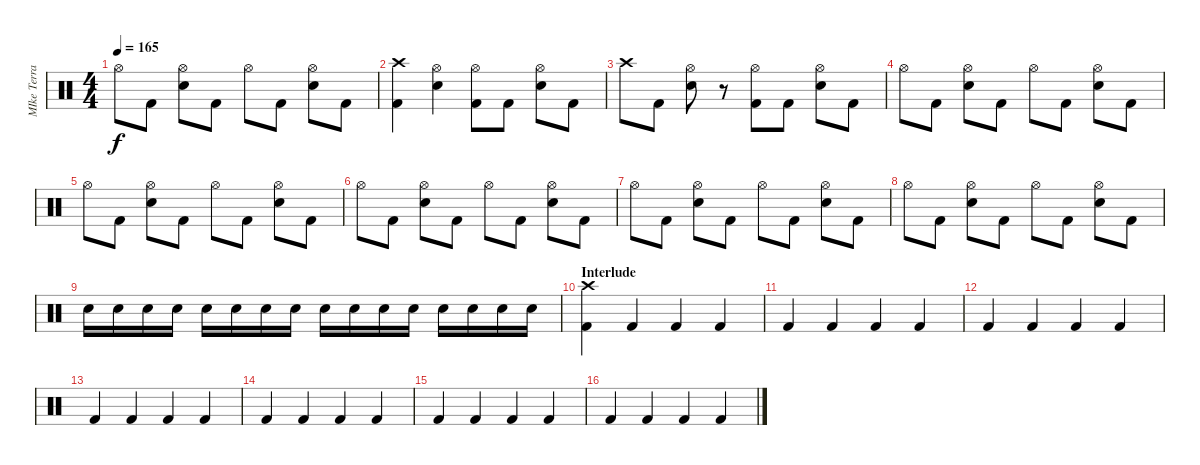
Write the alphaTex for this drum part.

\track ("MIke Terrana - Batteria" "MIke Terra") {instrument percussion}
\staff {score}
\articulation defaults
\ts (4 4)
\tempo 165
\clef neutral
\ks c "Hi-Hat (open)".8{dy f} "Kick (hit) 2".8
("Electric Snare (hit)" "Hi-Hat (open)").8 "Kick (hit) 2".8 "Hi-Hat (open)".8 "Kick (hit) 2".8 ("Electric Snare (hit)" "Hi-Hat (open)").8 "Kick (hit) 2".8 |
("Kick (hit) 2" "Crash high (hit)").4 ("Electric Snare (hit)" "Hi-Hat (open)").4 ("Kick (hit) 2" "Hi-Hat (open)").8 "Kick (hit) 2".8 ("Electric Snare (hit)" "Hi-Hat (open)").8 "Kick (hit) 2".8 |
"Crash high (hit)".8 "Kick (hit) 2".8 ("Electric Snare (hit)" "Hi-Hat (open)").8 r.8 ("Kick (hit) 2" "Hi-Hat (open)").8 "Kick (hit) 2".8 ("Electric Snare (hit)" "Hi-Hat (open)").8 "Kick (hit) 2".8 |
"Hi-Hat (open)".8 "Kick (hit) 2".8 ("Electric Snare (hit)" "Hi-Hat (open)").8 "Kick (hit) 2".8 "Hi-Hat (open)".8 "Kick (hit) 2".8 ("Electric Snare (hit)" "Hi-Hat (open)").8 "Kick (hit) 2".8 |
"Hi-Hat (open)".8 "Kick (hit) 2".8 ("Electric Snare (hit)" "Hi-Hat (open)").8 "Kick (hit) 2".8 "Hi-Hat (open)".8 "Kick (hit) 2".8 ("Electric Snare (hit)" "Hi-Hat (open)").8 "Kick (hit) 2".8 |
"Hi-Hat (open)".8 "Kick (hit) 2".8 ("Electric Snare (hit)" "Hi-Hat (open)").8 "Kick (hit) 2".8 "Hi-Hat (open)".8 "Kick (hit) 2".8 ("Electric Snare (hit)" "Hi-Hat (open)").8 "Kick (hit) 2".8 |
"Hi-Hat (open)".8 "Kick (hit) 2".8 ("Electric Snare (hit)" "Hi-Hat (open)").8 "Kick (hit) 2".8 "Hi-Hat (open)".8 "Kick (hit) 2".8 ("Electric Snare (hit)" "Hi-Hat (open)").8 "Kick (hit) 2".8 |
"Hi-Hat (open)".8 "Kick (hit) 2".8 ("Electric Snare (hit)" "Hi-Hat (open)").8 "Kick (hit) 2".8 "Hi-Hat (open)".8 "Kick (hit) 2".8 ("Electric Snare (hit)" "Hi-Hat (open)").8 "Kick (hit) 2".8 |
"Electric Snare (hit)".16 "Electric Snare (hit)".16 "Electric Snare (hit)".16 "Electric Snare (hit)".16 "Electric Snare (hit)".16 "Electric Snare (hit)".16 "Electric Snare (hit)".16 "Electric Snare (hit)".16 "Electric Snare (hit)".16 "Electric Snare (hit)".16 "Electric Snare (hit)".16 "Electric Snare (hit)".16 "Electric Snare (hit)".16 "Electric Snare (hit)".16 "Electric Snare (hit)".16 "Electric Snare (hit)".16 |
\section ("" "Interlude")
("Kick (hit) 2" "Crash high (hit)").4 "Kick (hit) 2".4 "Kick (hit) 2".4 "Kick (hit) 2".4 |
"Kick (hit) 2".4 "Kick (hit) 2".4 "Kick (hit) 2".4 "Kick (hit) 2".4 |
"Kick (hit) 2".4 "Kick (hit) 2".4 "Kick (hit) 2".4 "Kick (hit) 2".4 |
"Kick (hit) 2".4 "Kick (hit) 2".4 "Kick (hit) 2".4 "Kick (hit) 2".4 |
"Kick (hit) 2".4 "Kick (hit) 2".4 "Kick (hit) 2".4 "Kick (hit) 2".4 |
"Kick (hit) 2".4 "Kick (hit) 2".4 "Kick (hit) 2".4 "Kick (hit) 2".4 |
"Kick (hit) 2".4 "Kick (hit) 2".4 "Kick (hit) 2".4 "Kick (hit) 2".4
